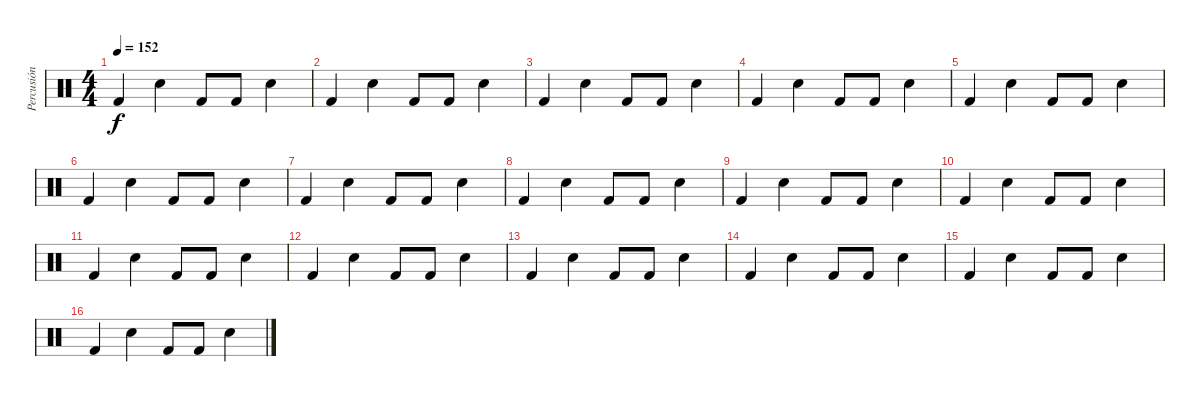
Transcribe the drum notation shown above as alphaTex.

\track ("Percusión" "Percusión") {instrument percussion}
\staff {score}
\articulation defaults
\ts (4 4)
\tempo 152
\clef neutral
\ks c "Kick (hit) 2".4{dy f} "Snare (hit) 2".4 "Kick (hit) 2".8 "Kick (hit) 2".8 "Snare (hit) 2".4
|
"Kick (hit) 2".4 "Snare (hit) 2".4 "Kick (hit) 2".8 "Kick (hit) 2".8 "Snare (hit) 2".4 |
"Kick (hit) 2".4 "Snare (hit) 2".4 "Kick (hit) 2".8 "Kick (hit) 2".8 "Snare (hit) 2".4 |
"Kick (hit) 2".4 "Snare (hit) 2".4 "Kick (hit) 2".8 "Kick (hit) 2".8 "Snare (hit) 2".4 |
"Kick (hit) 2".4 "Snare (hit) 2".4 "Kick (hit) 2".8 "Kick (hit) 2".8 "Snare (hit) 2".4 |
"Kick (hit) 2".4 "Snare (hit) 2".4 "Kick (hit) 2".8 "Kick (hit) 2".8 "Snare (hit) 2".4 |
"Kick (hit) 2".4 "Snare (hit) 2".4 "Kick (hit) 2".8 "Kick (hit) 2".8 "Snare (hit) 2".4 |
"Kick (hit) 2".4 "Snare (hit) 2".4 "Kick (hit) 2".8 "Kick (hit) 2".8 "Snare (hit) 2".4 |
"Kick (hit) 2".4 "Snare (hit) 2".4 "Kick (hit) 2".8 "Kick (hit) 2".8 "Snare (hit) 2".4 |
"Kick (hit) 2".4 "Snare (hit) 2".4 "Kick (hit) 2".8 "Kick (hit) 2".8 "Snare (hit) 2".4 |
"Kick (hit) 2".4 "Snare (hit) 2".4 "Kick (hit) 2".8 "Kick (hit) 2".8 "Snare (hit) 2".4 |
"Kick (hit) 2".4 "Snare (hit) 2".4 "Kick (hit) 2".8 "Kick (hit) 2".8 "Snare (hit) 2".4 |
"Kick (hit) 2".4 "Snare (hit) 2".4 "Kick (hit) 2".8 "Kick (hit) 2".8 "Snare (hit) 2".4 |
"Kick (hit) 2".4 "Snare (hit) 2".4 "Kick (hit) 2".8 "Kick (hit) 2".8 "Snare (hit) 2".4 |
"Kick (hit) 2".4 "Snare (hit) 2".4 "Kick (hit) 2".8 "Kick (hit) 2".8 "Snare (hit) 2".4 |
"Kick (hit) 2".4 "Snare (hit) 2".4 "Kick (hit) 2".8 "Kick (hit) 2".8 "Snare (hit) 2".4
